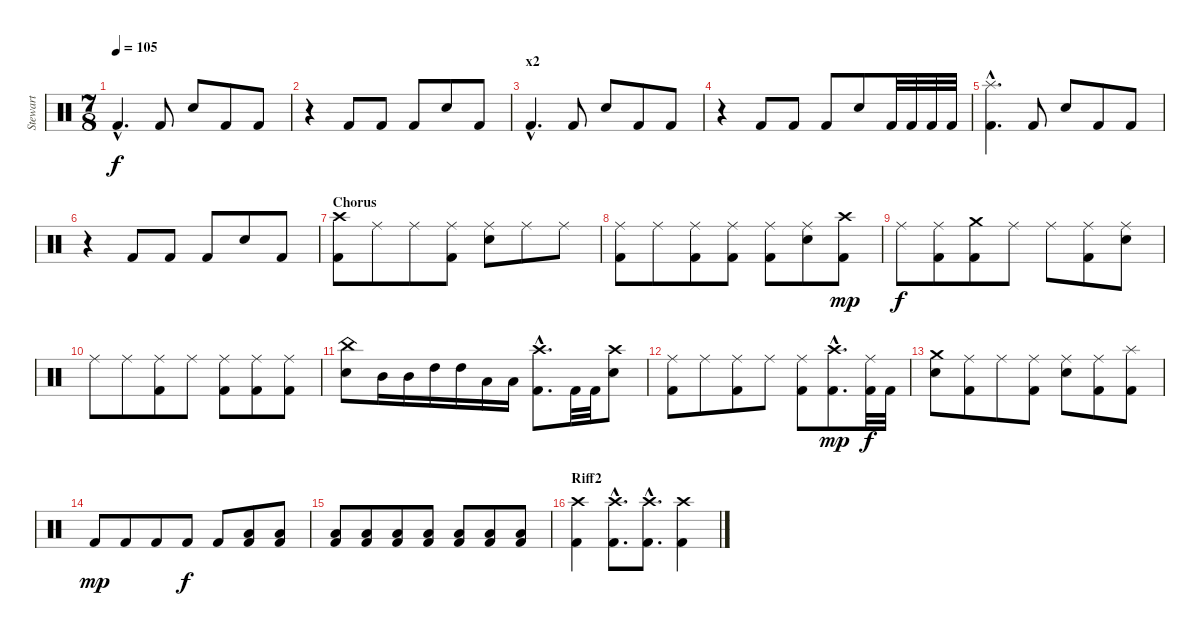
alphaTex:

\track ("Stewart" "Stewart") {instrument percussion}
\staff {score}
\articulation defaults
\ts (7 8)
\tempo 105
\clef neutral
\ks c "Kick (hit) 2"{hac}.4{d dy f} "Kick (hit) 2".8 "Electric Snare (hit)".8 "Kick (hit) 2".8 "Kick (hit) 2".8
|
r.4 "Kick (hit) 2".8 "Kick (hit) 2".8 "Kick (hit) 2".8 "Electric Snare (hit)".8 "Kick (hit) 2".8 |
\section ("" "x2")
"Kick (hit) 2"{hac}.4{d} "Kick (hit) 2".8 "Electric Snare (hit)".8 "Kick (hit) 2".8 "Kick (hit) 2".8 |
r.4 "Kick (hit) 2".8 "Kick (hit) 2".8 "Kick (hit) 2".8 "Electric Snare (hit)".8 "Kick (hit) 2".32 "Kick (hit) 2".32 "Kick (hit) 2".32 "Kick (hit) 2".32 |
("Splash (hit)"{hac} "Kick (hit) 2"{hac}).4{d} "Kick (hit) 2".8 "Electric Snare (hit)".8 "Kick (hit) 2".8 "Kick (hit) 2".8 |
r.4 "Kick (hit) 2".8 "Kick (hit) 2".8 "Kick (hit) 2".8 "Electric Snare (hit)".8 "Kick (hit) 2".8 |
\section ("" "Chorus")
("Crash high (hit)" "Kick (hit) 2").8 "Ride (middle)".8 "Ride (middle)".8 ("Ride (middle)" "Kick (hit) 2").8 ("Ride (middle)" "Electric Snare (hit)").8 "Ride (middle)".8 "Ride (middle)".8 |
("Ride (middle)" "Kick (hit) 2").8 "Ride (middle)".8 ("Ride (middle)" "Kick (hit) 2").8 ("Ride (middle)" "Kick (hit) 2").8 ("Ride (middle)" "Kick (hit) 2").8 ("Ride (middle)" "Electric Snare (hit)").8 ("Crash high (hit)" "Kick (hit) 2").8{dy mp} |
"Ride (middle)".8{dy f} ("Ride (middle)" "Kick (hit) 2").8 ("Crash medium (hit)" "Kick (hit) 2").8 "Ride (middle)".8 "Ride (middle)".8 ("Ride (middle)" "Kick (hit) 2").8 ("Ride (middle)" "Electric Snare (hit)").8 |
"Ride (middle)".8 "Ride (middle)".8 ("Ride (middle)" "Kick (hit) 2").8 "Ride (middle)".8 ("Ride (middle)" "Kick (hit) 2").8 ("Ride (middle)" "Kick (hit) 2").8 ("Ride (middle)" "Kick (hit) 2").8 |
("China (hit)" "Electric Snare (hit)").8 "Mid Tom (hit)".16 "Mid Tom (hit)".16 "High Tom (hit)".16 "High Tom (hit)".16 "Low Tom (hit)".16 "Low Tom (hit)".16 ("Crash high (hit)"{hac} "Kick (hit) 2"{hac}).8{d} "Kick (hit) 2".32 "Kick (hit) 2".32 ("Crash high (hit)" "Electric Snare (hit)").8 |
("Ride (middle)" "Kick (hit) 2").8 "Ride (middle)".8 ("Ride (middle)" "Kick (hit) 2").8 "Ride (middle)".8 ("Ride (middle)" "Kick (hit) 2").8 ("Crash high (hit)"{hac} "Kick (hit) 2"{hac}).8{d dy mp} ("Ride (middle)" "Kick (hit) 2").32{dy f} "Kick (hit) 2".32 |
("Crash medium (hit)" "Electric Snare (hit)").8 ("Ride (middle)" "Kick (hit) 2").8 "Ride (middle)".8 ("Ride (middle)" "Kick (hit) 2").8 ("Ride (middle)" "Electric Snare (hit)").8 ("Ride (middle)" "Kick (hit) 2").8 ("Splash (hit)" "Kick (hit) 2").8 |
"Kick (hit) 2".8{dy mp} "Kick (hit) 2".8 "Kick (hit) 2".8 "Kick (hit) 2".8{dy f} "Kick (hit) 2".8 ("Low Tom (hit)" "Kick (hit) 2").8 ("Low Tom (hit)" "Kick (hit) 2").8 |
("Low Tom (hit)" "Kick (hit) 2").8 ("Low Tom (hit)" "Kick (hit) 2").8 ("Low Tom (hit)" "Kick (hit) 2").8 ("Low Tom (hit)" "Kick (hit) 2").8 ("Low Tom (hit)" "Kick (hit) 2").8 ("Low Tom (hit)" "Kick (hit) 2").8 ("Low Tom (hit)" "Kick (hit) 2").8 |
\section ("" "Riff2")
("Crash high (hit)" "Kick (hit) 2").4 ("Crash high (hit)"{hac} "Kick (hit) 2"{hac}).8{d} ("Crash high (hit)"{hac} "Kick (hit) 2"{hac}).8{d} ("Crash high (hit)" "Kick (hit) 2").4
